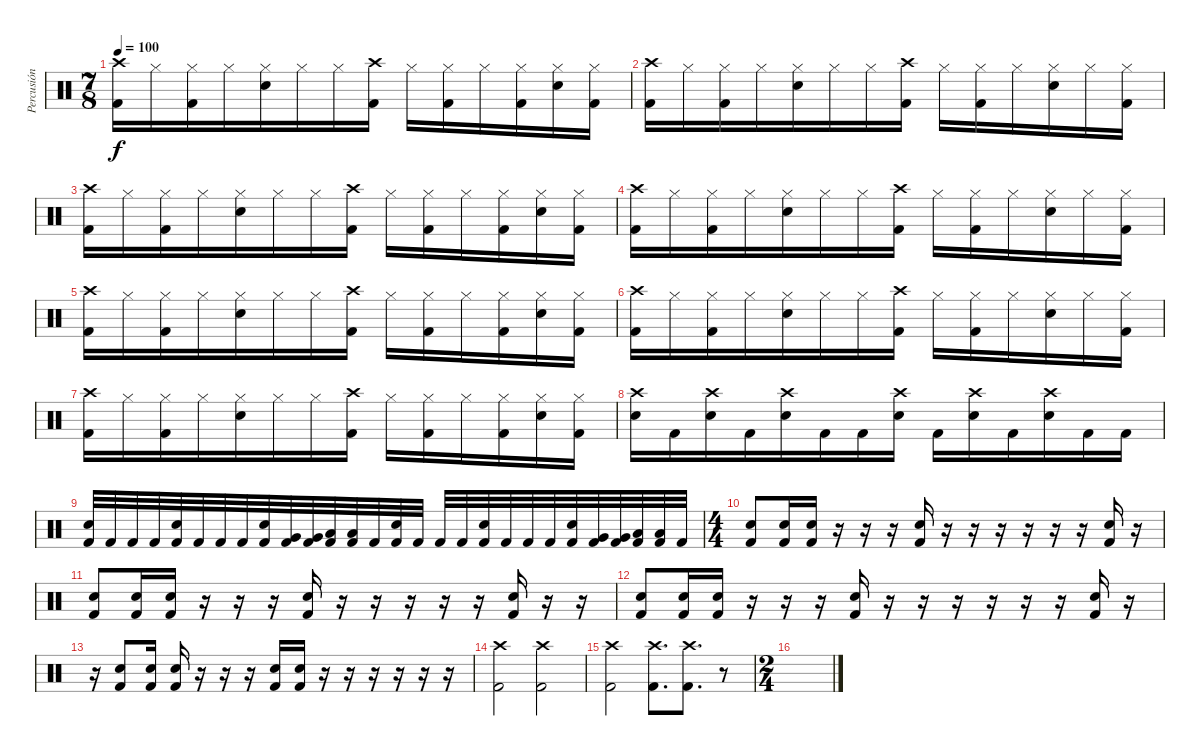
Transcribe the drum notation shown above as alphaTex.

\track ("Percusión" "Percusión") {instrument percussion}
\staff {score}
\articulation defaults
\ts (7 8)
\tempo 100
\clef neutral
\ks c
("Crash high (hit)" "Kick (hit) 2").16{dy f} "Hi-Hat (closed)".16 ("Hi-Hat (closed)" "Kick (hit) 2").16 "Hi-Hat (closed)".16 ("Hi-Hat (closed)" "Electric Snare (hit)").16 "Hi-Hat (closed)".16 "Hi-Hat (closed)".16 ("Crash high (hit)" "Kick (hit) 2").16 "Hi-Hat (closed)".16 ("Hi-Hat (closed)" "Kick (hit) 2").16 "Hi-Hat (closed)".16 ("Hi-Hat (closed)" "Kick (hit) 2").16 ("Hi-Hat (closed)" "Electric Snare (hit)").16 ("Hi-Hat (closed)" "Kick (hit) 2").16 |
("Crash high (hit)" "Kick (hit) 2").16 "Hi-Hat (closed)".16 ("Hi-Hat (closed)" "Kick (hit) 2").16 "Hi-Hat (closed)".16 ("Hi-Hat (closed)" "Electric Snare (hit)").16 "Hi-Hat (closed)".16 "Hi-Hat (closed)".16 ("Crash high (hit)" "Kick (hit) 2").16 "Hi-Hat (closed)".16 ("Hi-Hat (closed)" "Kick (hit) 2").16 "Hi-Hat (closed)".16 ("Hi-Hat (closed)" "Electric Snare (hit)").16 "Hi-Hat (closed)".16 ("Hi-Hat (closed)" "Kick (hit) 2").16 |
("Crash high (hit)" "Kick (hit) 2").16 "Hi-Hat (closed)".16 ("Hi-Hat (closed)" "Kick (hit) 2").16 "Hi-Hat (closed)".16 ("Hi-Hat (closed)" "Electric Snare (hit)").16 "Hi-Hat (closed)".16 "Hi-Hat (closed)".16 ("Crash high (hit)" "Kick (hit) 2").16 "Hi-Hat (closed)".16 ("Hi-Hat (closed)" "Kick (hit) 2").16 "Hi-Hat (closed)".16 ("Hi-Hat (closed)" "Kick (hit) 2").16 ("Hi-Hat (closed)" "Electric Snare (hit)").16 ("Hi-Hat (closed)" "Kick (hit) 2").16 |
("Crash high (hit)" "Kick (hit) 2").16 "Hi-Hat (closed)".16 ("Hi-Hat (closed)" "Kick (hit) 2").16 "Hi-Hat (closed)".16 ("Hi-Hat (closed)" "Electric Snare (hit)").16 "Hi-Hat (closed)".16 "Hi-Hat (closed)".16 ("Crash high (hit)" "Kick (hit) 2").16 "Hi-Hat (closed)".16 ("Hi-Hat (closed)" "Kick (hit) 2").16 "Hi-Hat (closed)".16 ("Hi-Hat (closed)" "Electric Snare (hit)").16 "Hi-Hat (closed)".16 ("Hi-Hat (closed)" "Kick (hit) 2").16 |
("Crash high (hit)" "Kick (hit) 2").16 "Hi-Hat (closed)".16 ("Hi-Hat (closed)" "Kick (hit) 2").16 "Hi-Hat (closed)".16 ("Hi-Hat (closed)" "Electric Snare (hit)").16 "Hi-Hat (closed)".16 "Hi-Hat (closed)".16 ("Crash high (hit)" "Kick (hit) 2").16 "Hi-Hat (closed)".16 ("Hi-Hat (closed)" "Kick (hit) 2").16 "Hi-Hat (closed)".16 ("Hi-Hat (closed)" "Kick (hit) 2").16 ("Hi-Hat (closed)" "Electric Snare (hit)").16 ("Hi-Hat (closed)" "Kick (hit) 2").16 |
("Crash high (hit)" "Kick (hit) 2").16 "Hi-Hat (closed)".16 ("Hi-Hat (closed)" "Kick (hit) 2").16 "Hi-Hat (closed)".16 ("Hi-Hat (closed)" "Electric Snare (hit)").16 "Hi-Hat (closed)".16 "Hi-Hat (closed)".16 ("Crash high (hit)" "Kick (hit) 2").16 "Hi-Hat (closed)".16 ("Hi-Hat (closed)" "Kick (hit) 2").16 "Hi-Hat (closed)".16 ("Hi-Hat (closed)" "Electric Snare (hit)").16 "Hi-Hat (closed)".16 ("Hi-Hat (closed)" "Kick (hit) 2").16 |
("Crash high (hit)" "Kick (hit) 2").16 "Hi-Hat (closed)".16 ("Hi-Hat (closed)" "Kick (hit) 2").16 "Hi-Hat (closed)".16 ("Hi-Hat (closed)" "Electric Snare (hit)").16 "Hi-Hat (closed)".16 "Hi-Hat (closed)".16 ("Crash high (hit)" "Kick (hit) 2").16 "Hi-Hat (closed)".16 ("Hi-Hat (closed)" "Kick (hit) 2").16 "Hi-Hat (closed)".16 ("Hi-Hat (closed)" "Kick (hit) 2").16 ("Hi-Hat (closed)" "Electric Snare (hit)").16 ("Hi-Hat (closed)" "Kick (hit) 2").16 |
("Crash high (hit)" "Electric Snare (hit)").16 "Kick (hit) 2".16 ("Crash high (hit)" "Electric Snare (hit)").16 "Kick (hit) 2".16 ("Crash high (hit)" "Electric Snare (hit)").16 "Kick (hit) 2".16 "Kick (hit) 2".16 ("Crash high (hit)" "Electric Snare (hit)").16 "Kick (hit) 2".16 ("Crash high (hit)" "Electric Snare (hit)").16 "Kick (hit) 2".16 ("Crash high (hit)" "Electric Snare (hit)").16 "Kick (hit) 2".16 "Kick (hit) 2".16 |
("Electric Snare (hit)" "Kick (hit) 2").32 "Kick (hit) 2".32 "Kick (hit) 2".32 "Kick (hit) 2".32 ("Electric Snare (hit)" "Kick (hit) 2").32 "Kick (hit) 2".32 "Kick (hit) 2".32 "Kick (hit) 2".32 ("Electric Snare (hit)" "Kick (hit) 2").32 ("Very Low Tom (hit)" "Kick (hit) 2").32 ("Very Low Tom (hit)" "Kick (hit) 2").32 ("Low Floor Tom (hit)" "Kick (hit) 2").32 ("Low Floor Tom (hit)" "Kick (hit) 2").32 "Kick (hit) 2".32 ("Electric Snare (hit)" "Kick (hit) 2").32 "Kick (hit) 2".32 "Kick (hit) 2".32 "Kick (hit) 2".32 ("Electric Snare (hit)" "Kick (hit) 2").32 "Kick (hit) 2".32 "Kick (hit) 2".32 "Kick (hit) 2".32 ("Electric Snare (hit)" "Kick (hit) 2").32 ("Very Low Tom (hit)" "Kick (hit) 2").32 ("Very Low Tom (hit)" "Kick (hit) 2").32 ("Low Floor Tom (hit)" "Kick (hit) 2").32 ("Low Floor Tom (hit)" "Kick (hit) 2").32 "Kick (hit) 2".32 |
\ts (4 4)
("Electric Snare (hit)" "Kick (hit) 2").8 ("Electric Snare (hit)" "Kick (hit) 2").16 ("Electric Snare (hit)" "Kick (hit) 2").16 r.16 r.16 r.16 ("Electric Snare (hit)" "Kick (hit) 2").16 r.16 r.16 r.16 r.16 r.16 r.16 ("Electric Snare (hit)" "Kick (hit) 2").16 r.16 |
("Electric Snare (hit)" "Kick (hit) 2").8 ("Electric Snare (hit)" "Kick (hit) 2").16 ("Electric Snare (hit)" "Kick (hit) 2").16 r.16 r.16 r.16 ("Electric Snare (hit)" "Kick (hit) 2").16 r.16 r.16 r.16 r.16 r.16 ("Electric Snare (hit)" "Kick (hit) 2").16 r.16 r.16 |
("Electric Snare (hit)" "Kick (hit) 2").8 ("Electric Snare (hit)" "Kick (hit) 2").16 ("Electric Snare (hit)" "Kick (hit) 2").16 r.16 r.16 r.16 ("Electric Snare (hit)" "Kick (hit) 2").16 r.16 r.16 r.16 r.16 r.16 r.16 ("Electric Snare (hit)" "Kick (hit) 2").16 r.16 |
r.16 ("Electric Snare (hit)" "Kick (hit) 2").8 ("Electric Snare (hit)" "Kick (hit) 2").16 ("Electric Snare (hit)" "Kick (hit) 2").16 r.16 r.16 r.16 ("Electric Snare (hit)" "Kick (hit) 2").16 ("Electric Snare (hit)" "Kick (hit) 2").16 r.16 r.16 r.16 r.16 r.16 r.16 |
("Crash high (hit)" "Kick (hit) 2").2 ("Crash high (hit)" "Kick (hit) 2").2 |
("Crash high (hit)" "Kick (hit) 2").2 ("Crash high (hit)" "Kick (hit) 2").8{d} ("Crash high (hit)" "Kick (hit) 2").8{d} r.8 |
\ts (2 4)
